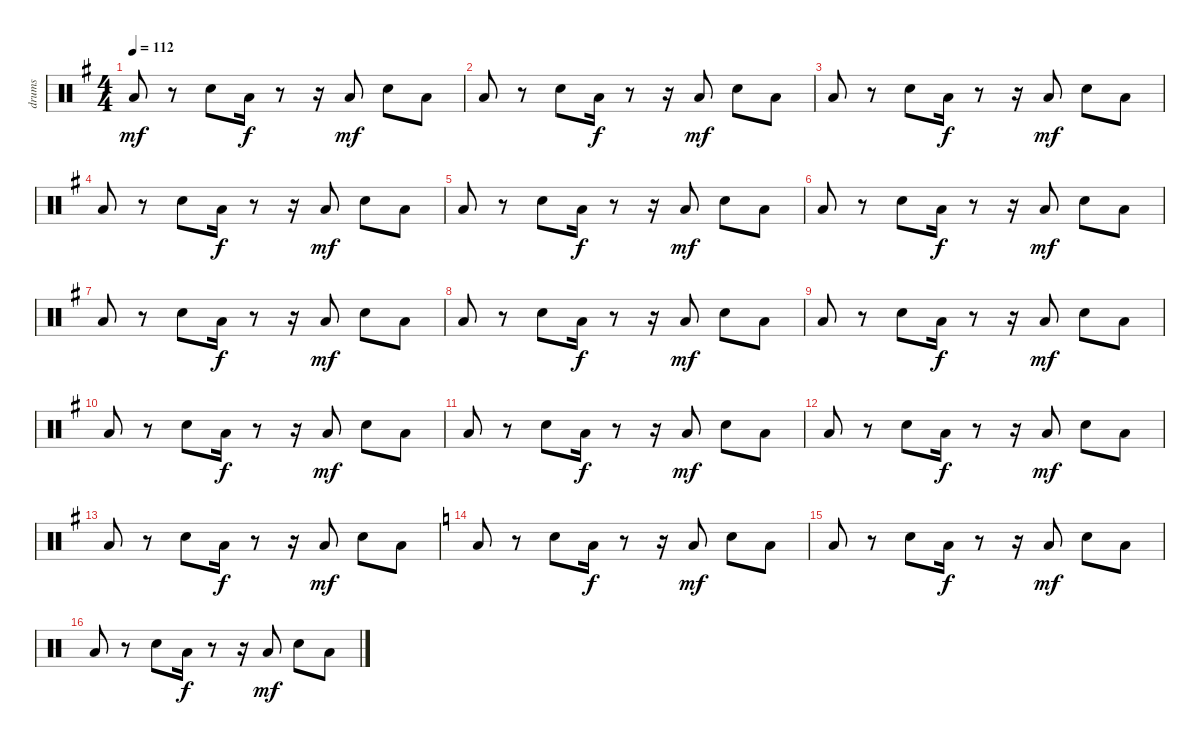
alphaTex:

\track ("drums" "drums") {instrument percussion}
\staff {score}
\articulation defaults
\ts (4 4)
\tempo 112
\clef neutral
\ks g "Low Floor Tom (hit)".8{dy mf}
r.8 "Snare (hit) 2".8 "Low Floor Tom (hit)".16{dy f} r.8 r.16 "Low Floor Tom (hit)".8{dy mf} "Snare (hit) 2".8 "Low Floor Tom (hit)".8 |
"Low Floor Tom (hit)".8 r.8 "Snare (hit) 2".8 "Low Floor Tom (hit)".16{dy f} r.8 r.16 "Low Floor Tom (hit)".8{dy mf} "Snare (hit) 2".8 "Low Floor Tom (hit)".8 |
"Low Floor Tom (hit)".8 r.8 "Snare (hit) 2".8 "Low Floor Tom (hit)".16{dy f} r.8 r.16 "Low Floor Tom (hit)".8{dy mf} "Snare (hit) 2".8 "Low Floor Tom (hit)".8 |
"Low Floor Tom (hit)".8 r.8 "Snare (hit) 2".8 "Low Floor Tom (hit)".16{dy f} r.8 r.16 "Low Floor Tom (hit)".8{dy mf} "Snare (hit) 2".8 "Low Floor Tom (hit)".8 |
"Low Floor Tom (hit)".8 r.8 "Snare (hit) 2".8 "Low Floor Tom (hit)".16{dy f} r.8 r.16 "Low Floor Tom (hit)".8{dy mf} "Snare (hit) 2".8 "Low Floor Tom (hit)".8 |
"Low Floor Tom (hit)".8 r.8 "Snare (hit) 2".8 "Low Floor Tom (hit)".16{dy f} r.8 r.16 "Low Floor Tom (hit)".8{dy mf} "Snare (hit) 2".8 "Low Floor Tom (hit)".8 |
"Low Floor Tom (hit)".8 r.8 "Snare (hit) 2".8 "Low Floor Tom (hit)".16{dy f} r.8 r.16 "Low Floor Tom (hit)".8{dy mf} "Snare (hit) 2".8 "Low Floor Tom (hit)".8 |
"Low Floor Tom (hit)".8 r.8 "Snare (hit) 2".8 "Low Floor Tom (hit)".16{dy f} r.8 r.16 "Low Floor Tom (hit)".8{dy mf} "Snare (hit) 2".8 "Low Floor Tom (hit)".8 |
"Low Floor Tom (hit)".8 r.8 "Snare (hit) 2".8 "Low Floor Tom (hit)".16{dy f} r.8 r.16 "Low Floor Tom (hit)".8{dy mf} "Snare (hit) 2".8 "Low Floor Tom (hit)".8 |
"Low Floor Tom (hit)".8 r.8 "Snare (hit) 2".8 "Low Floor Tom (hit)".16{dy f} r.8 r.16 "Low Floor Tom (hit)".8{dy mf} "Snare (hit) 2".8 "Low Floor Tom (hit)".8 |
"Low Floor Tom (hit)".8 r.8 "Snare (hit) 2".8 "Low Floor Tom (hit)".16{dy f} r.8 r.16 "Low Floor Tom (hit)".8{dy mf} "Snare (hit) 2".8 "Low Floor Tom (hit)".8 |
"Low Floor Tom (hit)".8 r.8 "Snare (hit) 2".8 "Low Floor Tom (hit)".16{dy f} r.8 r.16 "Low Floor Tom (hit)".8{dy mf} "Snare (hit) 2".8 "Low Floor Tom (hit)".8 |
"Low Floor Tom (hit)".8 r.8 "Snare (hit) 2".8 "Low Floor Tom (hit)".16{dy f} r.8 r.16 "Low Floor Tom (hit)".8{dy mf} "Snare (hit) 2".8 "Low Floor Tom (hit)".8 |
\ks c "Low Floor Tom (hit)".8
r.8 "Snare (hit) 2".8 "Low Floor Tom (hit)".16{dy f} r.8 r.16 "Low Floor Tom (hit)".8{dy mf} "Snare (hit) 2".8 "Low Floor Tom (hit)".8 |
"Low Floor Tom (hit)".8 r.8 "Snare (hit) 2".8 "Low Floor Tom (hit)".16{dy f} r.8 r.16 "Low Floor Tom (hit)".8{dy mf} "Snare (hit) 2".8 "Low Floor Tom (hit)".8 |
"Low Floor Tom (hit)".8 r.8 "Snare (hit) 2".8 "Low Floor Tom (hit)".16{dy f} r.8 r.16 "Low Floor Tom (hit)".8{dy mf} "Snare (hit) 2".8 "Low Floor Tom (hit)".8
